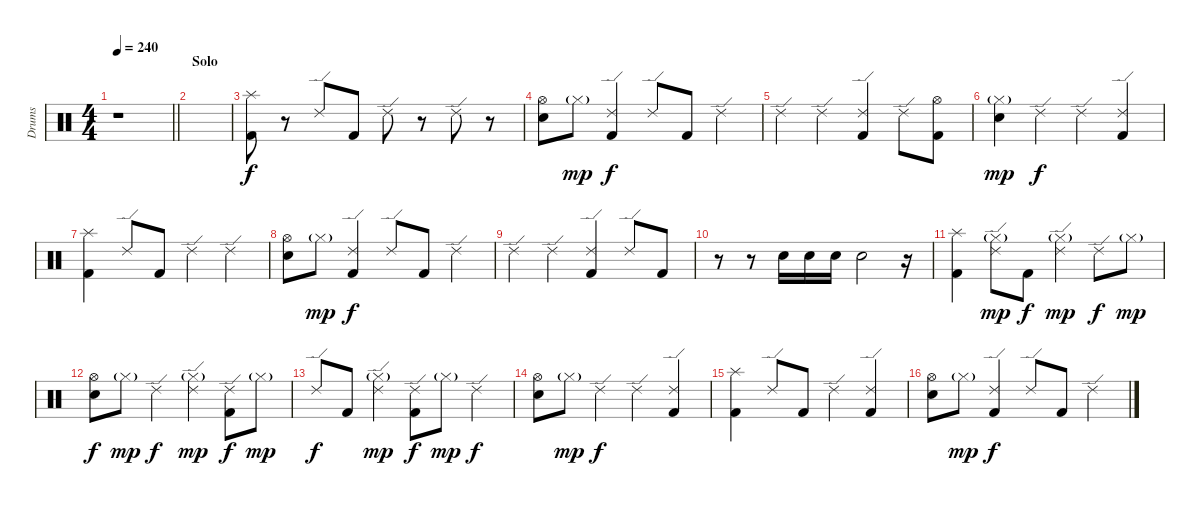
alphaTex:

\track ("Drums" "Drums") {instrument percussion}
\staff {score}
\articulation defaults
\ts (4 4)
\tempo 240
\clef neutral
\barLineRight lightlight
\ks c
r.1{dy f} |
\section ("" "Solo")
|
("Splash (hit)" "Kick (hit) 2").8 r.8 "Ride (edge) 2".8 "Kick (hit) 2".8 "Ride (edge) 2".8 r.8 "Ride (edge) 2".8 r.8 |
("Hi-Hat (open)" "Electric Snare (hit)").8 "Hi-Hat (closed)"{g}.8{dy mp} ("Ride (edge) 2" "Kick (hit) 2").4{dy f} "Ride (edge) 2".8 "Kick (hit) 2".8 "Ride (edge) 2".4 |
"Ride (edge) 2".4 "Ride (edge) 2".4 ("Ride (edge) 2" "Kick (hit) 2").4 "Ride (edge) 2".8 ("Hi-Hat (open)" "Kick (hit) 2").8 |
("Hi-Hat (closed)"{g} "Electric Snare (hit)").4{dy mp} "Ride (edge) 2".4{dy f} "Ride (edge) 2".4 ("Ride (edge) 2" "Kick (hit) 2").4 |
("Splash (hit)" "Kick (hit) 2").4 "Ride (edge) 2".8 "Kick (hit) 2".8 "Ride (edge) 2".4 "Ride (edge) 2".4 |
("Hi-Hat (open)" "Electric Snare (hit)").8 "Hi-Hat (closed)"{g}.8{dy mp} ("Ride (edge) 2" "Kick (hit) 2").4{dy f} "Ride (edge) 2".8 "Kick (hit) 2".8 "Ride (edge) 2".4 |
"Ride (edge) 2".4 "Ride (edge) 2".4 ("Ride (edge) 2" "Kick (hit) 2").4 "Ride (edge) 2".8 "Kick (hit) 2".8 |
r.8 r.8 "Electric Snare (hit)".16 "Electric Snare (hit)".16 "Electric Snare (hit)".16 "Electric Snare (hit)".2 r.16 |
("Splash (hit)" "Kick (hit) 2").4 ("Hi-Hat (closed)"{g} "Ride (edge) 2").8{dy mp} "Kick (hit) 2".8{dy f} ("Hi-Hat (closed)"{g} "Ride (edge) 2").4{dy mp} "Ride (edge) 2".8{dy f} "Hi-Hat (closed)"{g}.8{dy mp} |
("Hi-Hat (open)" "Electric Snare (hit)").8{dy f} "Hi-Hat (closed)"{g}.8{dy mp} "Ride (edge) 2".4{dy f} ("Hi-Hat (closed)"{g} "Ride (edge) 2").4{dy mp} ("Ride (edge) 2" "Kick (hit) 2").8{dy f} "Hi-Hat (closed)"{g}.8{dy mp} |
"Ride (edge) 2".8{dy f} "Kick (hit) 2".8 ("Hi-Hat (closed)"{g} "Ride (edge) 2").4{dy mp} ("Ride (edge) 2" "Kick (hit) 2").8{dy f} "Hi-Hat (closed)"{g}.8{dy mp} "Ride (edge) 2".4{dy f} |
("Hi-Hat (open)" "Electric Snare (hit)").8 "Hi-Hat (closed)"{g}.8{dy mp} "Ride (edge) 2".4{dy f} "Ride (edge) 2".4 ("Ride (edge) 2" "Kick (hit) 2").4 |
("Splash (hit)" "Kick (hit) 2").4 "Ride (edge) 2".8 "Kick (hit) 2".8 "Ride (edge) 2".4 ("Ride (edge) 2" "Kick (hit) 2").4 |
("Hi-Hat (open)" "Electric Snare (hit)").8 "Hi-Hat (closed)"{g}.8{dy mp} ("Ride (edge) 2" "Kick (hit) 2").4{dy f} "Ride (edge) 2".8 "Kick (hit) 2".8 "Ride (edge) 2".4
